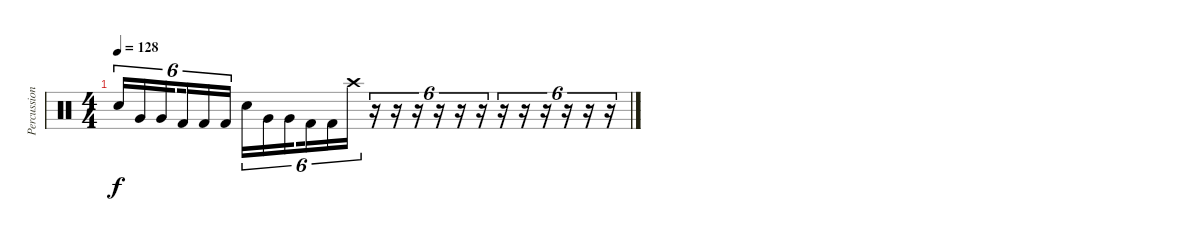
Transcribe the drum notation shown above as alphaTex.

\track ("Percussion" "Percussion") {instrument percussion}
\staff {score}
\articulation defaults
\ts (4 4)
\tempo 128
\clef neutral
\ks c "Electric Snare (hit)".16{tu (6 4) dy f} "Very Low Tom (hit)".16{tu (6 4)} "Very Low Tom (hit)".16{tu (6 4) beam splitsecondary} "Kick (hit) 2".16{tu (6 4)} "Kick (hit) 2".16{tu (6 4)} "Kick (hit) 2".16{tu (6 4)} "Electric Snare (hit)".16{tu (6 4)} "Very Low Tom (hit)".16{tu (6 4)} "Very Low Tom (hit)".16{tu (6 4) beam splitsecondary} "Kick (hit) 2".16{tu (6 4)} "Kick (hit) 2".16{tu (6 4)} "Crash high (hit)".16{tu (6 4)}
r.16{tu (6 4)} r.16{tu (6 4)} r.16{tu (6 4)} r.16{tu (6 4)} r.16{tu (6 4)} r.16{tu (6 4)} r.16{tu (6 4)} r.16{tu (6 4)} r.16{tu (6 4)} r.16{tu (6 4)} r.16{tu (6 4)} r.16{tu (6 4)}
